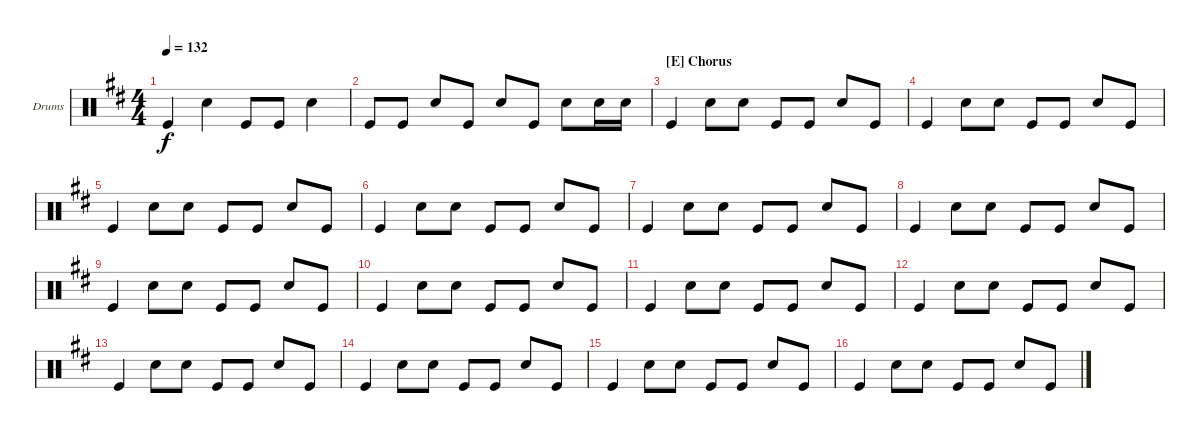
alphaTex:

\defaultSystemsLayout 4
\bracketExtendMode groupsimilarinstruments
\firstSystemTrackNameOrientation horizontal
\otherSystemsTrackNameOrientation horizontal
\track ("Drumkit" "Drums") {instrument percussion}
\staff {score}
\articulation defaults
\ts (4 4)
\tempo 132
\clef neutral
\scale
1.05044
\ks d "Kick (hit)".4{dy f} "Snare (hit) 2".4 "Kick (hit)".8 "Kick (hit)".8 "Snare (hit) 2".4
|
\scale
0.949559 "Kick (hit)".8 "Kick (hit)".8 "Snare (hit) 2".8 "Kick (hit)".8 "Snare (hit) 2".8 "Kick (hit)".8 "Snare (hit) 2".8 "Snare (hit) 2".16 "Snare (hit) 2".16 |
\section ("E" "Chorus")
\scale
1.05044 "Kick (hit)".4 "Snare (hit) 2".8 "Snare (hit) 2".8 "Kick (hit)".8 "Kick (hit)".8 "Snare (hit) 2".8 "Kick (hit)".8 |
\scale
0.949559 "Kick (hit)".4 "Snare (hit) 2".8 "Snare (hit) 2".8 "Kick (hit)".8 "Kick (hit)".8 "Snare (hit) 2".8 "Kick (hit)".8 |
\scale
1.05044 "Kick (hit)".4 "Snare (hit) 2".8 "Snare (hit) 2".8 "Kick (hit)".8 "Kick (hit)".8 "Snare (hit) 2".8 "Kick (hit)".8 |
\scale
0.949559 "Kick (hit)".4 "Snare (hit) 2".8 "Snare (hit) 2".8 "Kick (hit)".8 "Kick (hit)".8 "Snare (hit) 2".8 "Kick (hit)".8 |
\scale
1.05044 "Kick (hit)".4 "Snare (hit) 2".8 "Snare (hit) 2".8 "Kick (hit)".8 "Kick (hit)".8 "Snare (hit) 2".8 "Kick (hit)".8 |
\scale
0.949559 "Kick (hit)".4 "Snare (hit) 2".8 "Snare (hit) 2".8 "Kick (hit)".8 "Kick (hit)".8 "Snare (hit) 2".8 "Kick (hit)".8 |
\scale
1.05044 "Kick (hit)".4 "Snare (hit) 2".8 "Snare (hit) 2".8 "Kick (hit)".8 "Kick (hit)".8 "Snare (hit) 2".8 "Kick (hit)".8 |
\scale
0.949559 "Kick (hit)".4 "Snare (hit) 2".8 "Snare (hit) 2".8 "Kick (hit)".8 "Kick (hit)".8 "Snare (hit) 2".8 "Kick (hit)".8 |
\scale
1.05044 "Kick (hit)".4 "Snare (hit) 2".8 "Snare (hit) 2".8 "Kick (hit)".8 "Kick (hit)".8 "Snare (hit) 2".8 "Kick (hit)".8 |
\scale
0.949559 "Kick (hit)".4 "Snare (hit) 2".8 "Snare (hit) 2".8 "Kick (hit)".8 "Kick (hit)".8 "Snare (hit) 2".8 "Kick (hit)".8 |
\scale
1.05044 "Kick (hit)".4 "Snare (hit) 2".8 "Snare (hit) 2".8 "Kick (hit)".8 "Kick (hit)".8 "Snare (hit) 2".8 "Kick (hit)".8 |
\scale
0.949559 "Kick (hit)".4 "Snare (hit) 2".8 "Snare (hit) 2".8 "Kick (hit)".8 "Kick (hit)".8 "Snare (hit) 2".8 "Kick (hit)".8 |
\scale
1.05044 "Kick (hit)".4 "Snare (hit) 2".8 "Snare (hit) 2".8 "Kick (hit)".8 "Kick (hit)".8 "Snare (hit) 2".8 "Kick (hit)".8 |
\scale
0.949559 "Kick (hit)".4 "Snare (hit) 2".8 "Snare (hit) 2".8 "Kick (hit)".8 "Kick (hit)".8 "Snare (hit) 2".8 "Kick (hit)".8
